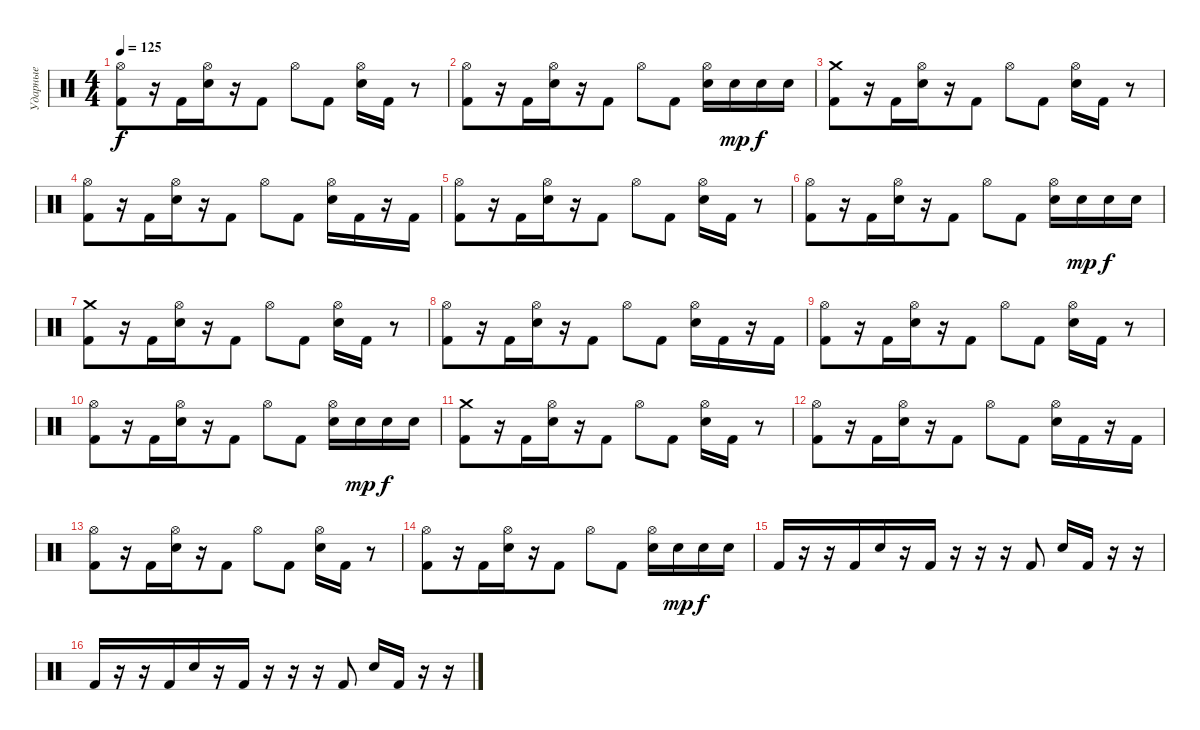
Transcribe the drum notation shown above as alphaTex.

\track ("Ударные" "Ударные") {instrument percussion}
\staff {score}
\articulation defaults
\ts (4 4)
\tempo 125
\clef neutral
\ks c
("Hi-Hat (open)" "Kick (hit) 2").8{dy f} r.16 "Kick (hit) 2".16{beam merge} ("Hi-Hat (open)" "Electric Snare (hit)").16 r.16 "Kick (hit) 2".8 "Hi-Hat (open)".8 "Kick (hit) 2".8 ("Hi-Hat (open)" "Electric Snare (hit)").16 "Kick (hit) 2".16 r.8 |
("Hi-Hat (open)" "Kick (hit) 2").8 r.16 "Kick (hit) 2".16{beam merge} ("Hi-Hat (open)" "Electric Snare (hit)").16 r.16 "Kick (hit) 2".8 "Hi-Hat (open)".8 "Kick (hit) 2".8 ("Hi-Hat (open)" "Electric Snare (hit)").16 "Electric Snare (hit)".16{dy mp} "Electric Snare (hit)".16{dy f} "Electric Snare (hit)".16 |
("Crash medium (hit)" "Kick (hit) 2").8 r.16 "Kick (hit) 2".16{beam merge} ("Hi-Hat (open)" "Electric Snare (hit)").16 r.16 "Kick (hit) 2".8 "Hi-Hat (open)".8 "Kick (hit) 2".8 ("Hi-Hat (open)" "Electric Snare (hit)").16 "Kick (hit) 2".16 r.8 |
("Hi-Hat (open)" "Kick (hit) 2").8 r.16 "Kick (hit) 2".16{beam merge} ("Hi-Hat (open)" "Electric Snare (hit)").16 r.16 "Kick (hit) 2".8 "Hi-Hat (open)".8 "Kick (hit) 2".8 ("Hi-Hat (open)" "Electric Snare (hit)").16 "Kick (hit) 2".16 r.16 "Kick (hit) 2".16 |
("Hi-Hat (open)" "Kick (hit) 2").8 r.16 "Kick (hit) 2".16{beam merge} ("Hi-Hat (open)" "Electric Snare (hit)").16 r.16 "Kick (hit) 2".8 "Hi-Hat (open)".8 "Kick (hit) 2".8 ("Hi-Hat (open)" "Electric Snare (hit)").16 "Kick (hit) 2".16 r.8 |
("Hi-Hat (open)" "Kick (hit) 2").8 r.16 "Kick (hit) 2".16{beam merge} ("Hi-Hat (open)" "Electric Snare (hit)").16 r.16 "Kick (hit) 2".8 "Hi-Hat (open)".8 "Kick (hit) 2".8 ("Hi-Hat (open)" "Electric Snare (hit)").16 "Electric Snare (hit)".16{dy mp} "Electric Snare (hit)".16{dy f} "Electric Snare (hit)".16 |
("Crash medium (hit)" "Kick (hit) 2").8 r.16 "Kick (hit) 2".16{beam merge} ("Hi-Hat (open)" "Electric Snare (hit)").16 r.16 "Kick (hit) 2".8 "Hi-Hat (open)".8 "Kick (hit) 2".8 ("Hi-Hat (open)" "Electric Snare (hit)").16 "Kick (hit) 2".16 r.8 |
("Hi-Hat (open)" "Kick (hit) 2").8 r.16 "Kick (hit) 2".16{beam merge} ("Hi-Hat (open)" "Electric Snare (hit)").16 r.16 "Kick (hit) 2".8 "Hi-Hat (open)".8 "Kick (hit) 2".8 ("Hi-Hat (open)" "Electric Snare (hit)").16 "Kick (hit) 2".16 r.16 "Kick (hit) 2".16 |
("Hi-Hat (open)" "Kick (hit) 2").8 r.16 "Kick (hit) 2".16{beam merge} ("Hi-Hat (open)" "Electric Snare (hit)").16 r.16 "Kick (hit) 2".8 "Hi-Hat (open)".8 "Kick (hit) 2".8 ("Hi-Hat (open)" "Electric Snare (hit)").16 "Kick (hit) 2".16 r.8 |
("Hi-Hat (open)" "Kick (hit) 2").8 r.16 "Kick (hit) 2".16{beam merge} ("Hi-Hat (open)" "Electric Snare (hit)").16 r.16 "Kick (hit) 2".8 "Hi-Hat (open)".8 "Kick (hit) 2".8 ("Hi-Hat (open)" "Electric Snare (hit)").16 "Electric Snare (hit)".16{dy mp} "Electric Snare (hit)".16{dy f} "Electric Snare (hit)".16 |
("Crash medium (hit)" "Kick (hit) 2").8 r.16 "Kick (hit) 2".16{beam merge} ("Hi-Hat (open)" "Electric Snare (hit)").16 r.16 "Kick (hit) 2".8 "Hi-Hat (open)".8 "Kick (hit) 2".8 ("Hi-Hat (open)" "Electric Snare (hit)").16 "Kick (hit) 2".16 r.8 |
("Hi-Hat (open)" "Kick (hit) 2").8 r.16 "Kick (hit) 2".16{beam merge} ("Hi-Hat (open)" "Electric Snare (hit)").16 r.16 "Kick (hit) 2".8 "Hi-Hat (open)".8 "Kick (hit) 2".8 ("Hi-Hat (open)" "Electric Snare (hit)").16 "Kick (hit) 2".16 r.16 "Kick (hit) 2".16 |
("Hi-Hat (open)" "Kick (hit) 2").8 r.16 "Kick (hit) 2".16{beam merge} ("Hi-Hat (open)" "Electric Snare (hit)").16 r.16 "Kick (hit) 2".8 "Hi-Hat (open)".8 "Kick (hit) 2".8 ("Hi-Hat (open)" "Electric Snare (hit)").16 "Kick (hit) 2".16 r.8 |
("Hi-Hat (open)" "Kick (hit) 2").8 r.16 "Kick (hit) 2".16{beam merge} ("Hi-Hat (open)" "Electric Snare (hit)").16 r.16 "Kick (hit) 2".8 "Hi-Hat (open)".8 "Kick (hit) 2".8 ("Hi-Hat (open)" "Electric Snare (hit)").16 "Electric Snare (hit)".16{dy mp} "Electric Snare (hit)".16{dy f} "Electric Snare (hit)".16 |
"Kick (hit) 2".16 r.16 r.16 "Kick (hit) 2".16{beam merge} "Electric Snare (hit)".16 r.16 "Kick (hit) 2".16 r.16 r.16 r.16 "Kick (hit) 2".8 "Electric Snare (hit)".16 "Kick (hit) 2".16 r.16 r.16 |
"Kick (hit) 2".16 r.16 r.16 "Kick (hit) 2".16{beam merge} "Electric Snare (hit)".16 r.16 "Kick (hit) 2".16 r.16 r.16 r.16 "Kick (hit) 2".8 "Electric Snare (hit)".16 "Kick (hit) 2".16 r.16 r.16
